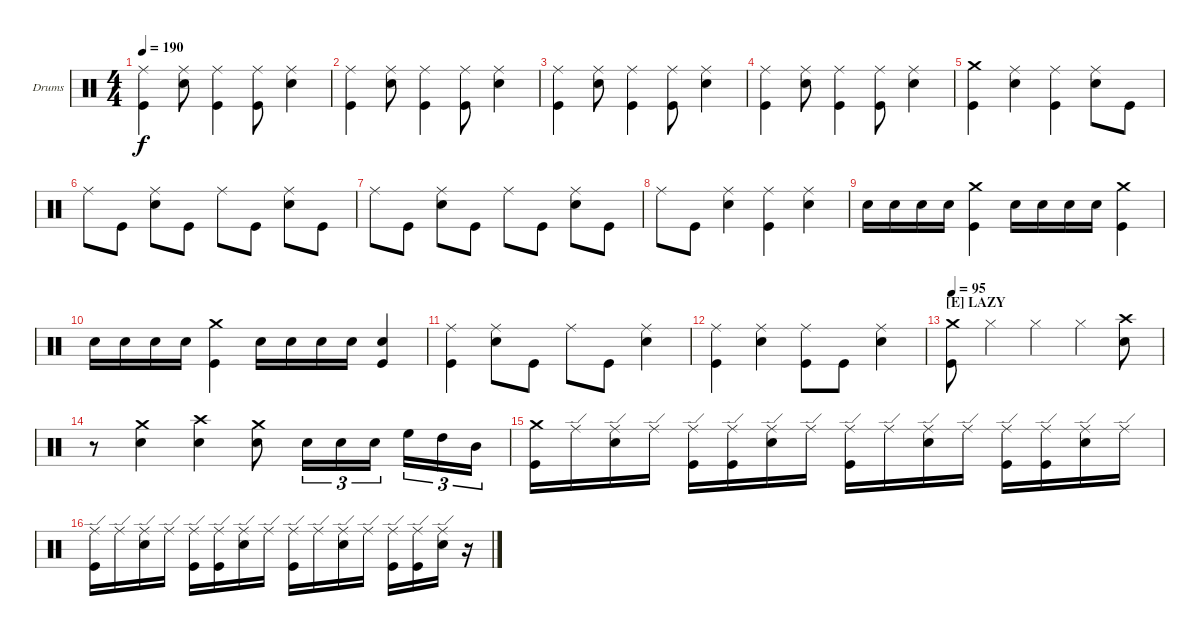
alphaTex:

\bracketExtendMode groupsimilarinstruments
\firstSystemTrackNameOrientation horizontal
\otherSystemsTrackNameOrientation horizontal
\track ("Drumkit" "Drums") {instrument percussion}
\staff {score}
\articulation defaults
\ts (4 4)
\tempo 190
\clef neutral
\ks c
("Kick (hit)" "Ride (middle)").4{dy f} ("Snare (hit) 2" "Ride (middle)").8 ("Kick (hit)" "Ride (middle)").4 ("Kick (hit)" "Ride (middle)").8 ("Snare (hit) 2" "Ride (middle)").4 |
("Kick (hit)" "Ride (middle)").4 ("Snare (hit) 2" "Ride (middle)").8 ("Kick (hit)" "Ride (middle)").4 ("Kick (hit)" "Ride (middle)").8 ("Snare (hit) 2" "Ride (middle)").4 |
("Kick (hit)" "Ride (middle)").4 ("Snare (hit) 2" "Ride (middle)").8 ("Kick (hit)" "Ride (middle)").4 ("Kick (hit)" "Ride (middle)").8 ("Snare (hit) 2" "Ride (middle)").4 |
("Kick (hit)" "Ride (middle)").4 ("Snare (hit) 2" "Ride (middle)").8 ("Kick (hit)" "Ride (middle)").4 ("Kick (hit)" "Ride (middle)").8 ("Snare (hit) 2" "Ride (middle)").4 |
("Kick (hit)" "Crash medium (hit)").4 ("Snare (hit) 2" "Ride (middle)").4 ("Kick (hit)" "Ride (middle)").4 ("Snare (hit) 2" "Ride (middle)").8 "Kick (hit)".8 |
"Ride (middle)".8 "Kick (hit)".8 ("Snare (hit) 2" "Ride (middle)").8 "Kick (hit)".8 "Ride (middle)".8 "Kick (hit)".8 ("Snare (hit) 2" "Ride (middle)").8 "Kick (hit)".8 |
"Ride (middle)".8 "Kick (hit)".8 ("Snare (hit) 2" "Ride (middle)").8 "Kick (hit)".8 "Ride (middle)".8 "Kick (hit)".8 ("Snare (hit) 2" "Ride (middle)").8 "Kick (hit)".8 |
"Ride (middle)".8 "Kick (hit)".8 ("Snare (hit) 2" "Ride (middle)").4 ("Ride (middle)" "Kick (hit)").4 ("Snare (hit) 2" "Ride (middle)").4 |
"Snare (hit) 2".16 "Snare (hit) 2".16 "Snare (hit) 2".16 "Snare (hit) 2".16 ("Crash medium (hit)" "Kick (hit)").4 "Snare (hit) 2".16 "Snare (hit) 2".16 "Snare (hit) 2".16 "Snare (hit) 2".16 ("Kick (hit)" "Crash medium (hit)").4 |
"Snare (hit) 2".16 "Snare (hit) 2".16 "Snare (hit) 2".16 "Snare (hit) 2".16 ("Crash medium (hit)" "Kick (hit)").4 "Snare (hit) 2".16 "Snare (hit) 2".16 "Snare (hit) 2".16 "Snare (hit) 2".16 ("Snare (hit) 2" "Kick (hit)").4 |
("Kick (hit)" "Ride (middle)").4 ("Snare (hit) 2" "Ride (middle)").8 "Kick (hit)".8 "Ride (middle)".8 "Kick (hit)".8 ("Snare (hit) 2" "Ride (middle)").4 |
("Kick (hit)" "Ride (middle)").4 ("Snare (hit) 2" "Ride (middle)").4 ("Ride (middle)" "Kick (hit)").8 "Kick (hit)".8 ("Snare (hit) 2" "Ride (middle)").4 |
\section ("E" "LAZY")
\tempo 95
("Kick (hit)" "Crash medium (hit)").8 "Hi-Hat (closed)".4 "Hi-Hat (closed)".4 "Hi-Hat (closed)".4 ("Crash high (hit)" "Snare (hit) 2").8 |
r.8 ("Crash medium (hit)" "Snare (hit) 2").4 ("Crash high (hit)" "Snare (hit) 2").4 ("Crash medium (hit)" "Snare (hit) 2").8 "Snare (hit) 2".16{tu (3 2)} "Snare (hit) 2".16{tu (3 2)} "Snare (hit) 2".16{tu (3 2)} "High Floor Tom (hit)".16{tu (3 2)} "High Tom (hit)".16{tu (3 2)} "Mid Tom (hit)".16{tu (3 2)} |
("Crash medium (hit)" "Kick (hit)").16 "Ride (edge)".16 ("Ride (edge)" "Snare (hit) 2").16 "Ride (edge)".16 ("Ride (edge)" "Kick (hit)").16 ("Ride (edge)" "Kick (hit)").16 ("Ride (edge)" "Snare (hit) 2").16 "Ride (edge)".16 ("Ride (edge)" "Kick (hit)").16 "Ride (edge)".16 ("Ride (edge)" "Snare (hit) 2").16 "Ride (edge)".16 ("Ride (edge)" "Kick (hit)").16 ("Ride (edge)" "Kick (hit)").16 ("Ride (edge)" "Snare (hit) 2").16 "Ride (edge)".16 |
("Ride (edge)" "Kick (hit)").16 "Ride (edge)".16 ("Ride (edge)" "Snare (hit) 2").16 "Ride (edge)".16 ("Ride (edge)" "Kick (hit)").16 ("Ride (edge)" "Kick (hit)").16 ("Ride (edge)" "Snare (hit) 2").16 "Ride (edge)".16 ("Ride (edge)" "Kick (hit)").16 "Ride (edge)".16 ("Ride (edge)" "Snare (hit) 2").16 "Ride (edge)".16 ("Ride (edge)" "Kick (hit)").16 ("Ride (edge)" "Kick (hit)").16 ("Ride (edge)" "Snare (hit) 2").16 r.16
